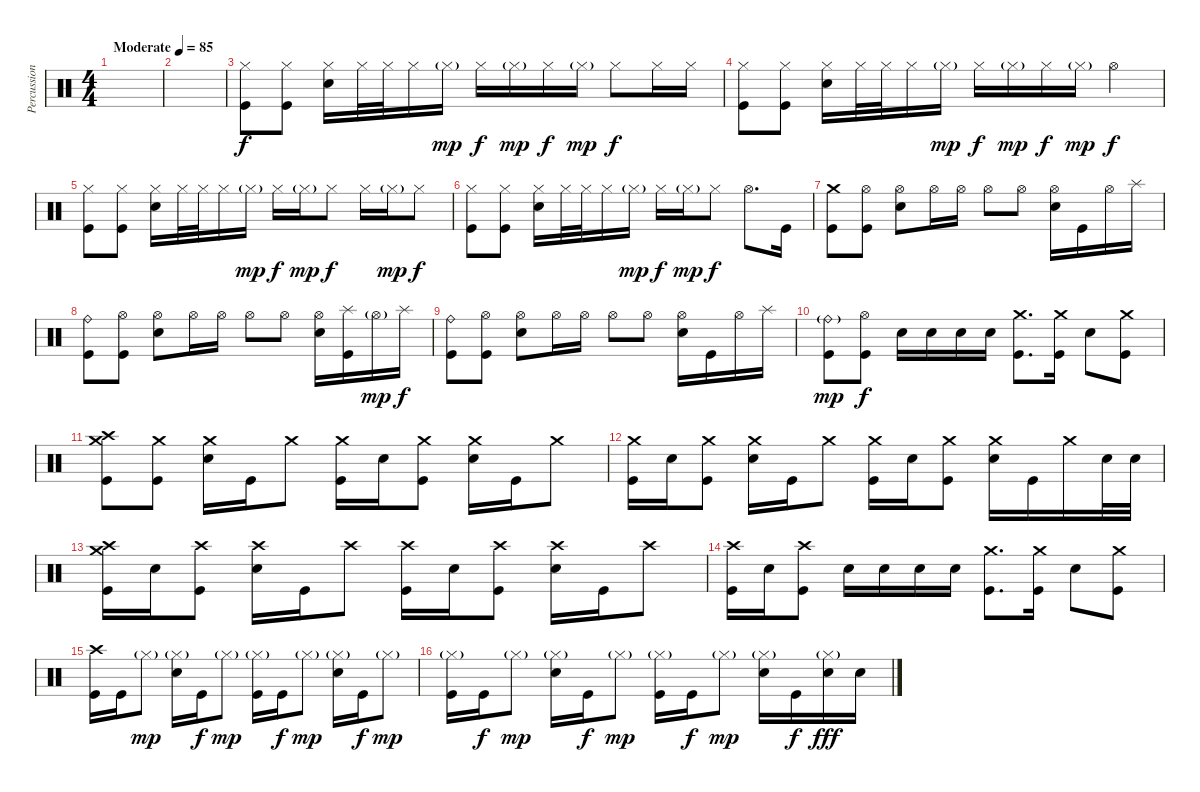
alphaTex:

\track ("Percussion" "Percussion") {instrument percussion}
\staff {score}
\articulation defaults
\ts (4 4)
\tempo (85 "Moderate")
\clef neutral
\ks c
|
|
("Hi-Hat (closed)" "Kick (hit)").8 ("Hi-Hat (closed)" "Kick (hit)").8 ("Hi-Hat (closed)" "Snare (hit) 2").16 "Hi-Hat (closed)".32 "Hi-Hat (closed)".32 "Hi-Hat (closed)".16 "Hi-Hat (closed)"{g}.16{dy mp} "Hi-Hat (closed)".16{dy f} "Hi-Hat (closed)"{g}.16{dy mp} "Hi-Hat (closed)".16{dy f} "Hi-Hat (closed)"{g}.16{dy mp} "Hi-Hat (closed)".8{dy f} "Hi-Hat (closed)".16 "Hi-Hat (closed)".16 |
("Hi-Hat (closed)" "Kick (hit)").8 ("Hi-Hat (closed)" "Kick (hit)").8 ("Hi-Hat (closed)" "Snare (hit) 2").16 "Hi-Hat (closed)".32 "Hi-Hat (closed)".32 "Hi-Hat (closed)".16 "Hi-Hat (closed)"{g}.16{dy mp} "Hi-Hat (closed)".16{dy f} "Hi-Hat (closed)"{g}.16{dy mp} "Hi-Hat (closed)".16{dy f} "Hi-Hat (closed)"{g}.16{dy mp} "Hi-Hat (open)".4{dy f} |
("Hi-Hat (closed)" "Kick (hit)").8 ("Hi-Hat (closed)" "Kick (hit)").8 ("Hi-Hat (closed)" "Snare (hit) 2").16 "Hi-Hat (closed)".32 "Hi-Hat (closed)".32 "Hi-Hat (closed)".16 "Hi-Hat (closed)"{g}.16{dy mp} "Hi-Hat (closed)".16{dy f} "Hi-Hat (closed)"{g}.16{dy mp} "Hi-Hat (closed)".8{dy f} "Hi-Hat (closed)".16 "Hi-Hat (closed)"{g}.16{dy mp} "Hi-Hat (closed)".8{dy f} |
("Hi-Hat (closed)" "Kick (hit)").8 ("Hi-Hat (closed)" "Kick (hit)").8 ("Hi-Hat (closed)" "Snare (hit) 2").16 "Hi-Hat (closed)".32 "Hi-Hat (closed)".32 "Hi-Hat (closed)".16 "Hi-Hat (closed)"{g}.16{dy mp} "Hi-Hat (closed)".16{dy f} "Hi-Hat (closed)"{g}.16{dy mp} "Hi-Hat (closed)".8{dy f} "Hi-Hat (open)".8{d} "Kick (hit)".16 |
("Crash medium (hit)" "Kick (hit)").8 ("Hi-Hat (open)" "Kick (hit)").8 ("Hi-Hat (open)" "Snare (hit) 2").8 "Hi-Hat (open)".16 "Hi-Hat (open)".16 "Hi-Hat (open)".8 "Hi-Hat (open)".8 ("Hi-Hat (open)" "Snare (hit) 2").16 "Kick (hit)".16 "Hi-Hat (open)".16 "Splash (hit)".16 |
("Ride (bell)" "Kick (hit)").8 ("Hi-Hat (open)" "Kick (hit)").8 ("Hi-Hat (open)" "Snare (hit) 2").8 "Hi-Hat (open)".16 "Hi-Hat (open)".16 "Hi-Hat (open)".8 "Hi-Hat (open)".8 ("Hi-Hat (open)" "Snare (hit) 2").16 ("Splash (hit)" "Kick (hit)").16 "Hi-Hat (open)"{g}.16{dy mp} "Splash (hit)".16{dy f} |
("Ride (bell)" "Kick (hit)").8 ("Hi-Hat (open)" "Kick (hit)").8 ("Hi-Hat (open)" "Snare (hit) 2").8 "Hi-Hat (open)".16 "Hi-Hat (open)".16 "Hi-Hat (open)".8 "Hi-Hat (open)".8 ("Hi-Hat (open)" "Snare (hit) 2").16 "Kick (hit)".16 "Hi-Hat (open)".16 "Splash (hit)".16 |
("Ride (bell)"{g} "Kick (hit)").8{dy mp} ("Hi-Hat (open)" "Kick (hit)").8{dy f} "Snare (hit) 2".16 "Snare (hit) 2".16 "Snare (hit) 2".16 "Snare (hit) 2".16 ("Crash medium (hit)" "Kick (hit)").8{d} ("Crash medium (hit)" "Kick (hit)").16 "Snare (hit) 2".8 ("Crash medium (hit)" "Kick (hit)").8 |
("Crash medium (hit)" "Crash high (hit)" "Kick (hit)").8 ("Crash medium (hit)" "Kick (hit)").8 ("Crash medium (hit)" "Snare (hit) 2").16 "Kick (hit)".16 "Crash medium (hit)".8 ("Crash medium (hit)" "Kick (hit)").16 "Snare (hit) 2".16 ("Crash medium (hit)" "Kick (hit)").8 ("Crash medium (hit)" "Snare (hit) 2").16 "Kick (hit)".16 "Crash medium (hit)".8 |
("Crash medium (hit)" "Kick (hit)").16 "Snare (hit) 2".16 ("Crash medium (hit)" "Kick (hit)").8 ("Crash medium (hit)" "Snare (hit) 2").16 "Kick (hit)".16 "Crash medium (hit)".8 ("Crash medium (hit)" "Kick (hit)").16 "Snare (hit) 2".16 ("Crash medium (hit)" "Kick (hit)").8 ("Crash medium (hit)" "Snare (hit) 2").16 "Kick (hit)".16 "Crash medium (hit)".16 "Snare (hit) 2".32 "Snare (hit) 2".32 |
("Crash high (hit)" "Crash medium (hit)" "Kick (hit)").16 "Snare (hit) 2".16 ("Crash high (hit)" "Kick (hit)").8 ("Crash high (hit)" "Snare (hit) 2").16 "Kick (hit)".16 "Crash high (hit)".8 ("Crash high (hit)" "Kick (hit)").16 "Snare (hit) 2".16 ("Crash high (hit)" "Kick (hit)").8 ("Crash high (hit)" "Snare (hit) 2").16 "Kick (hit)".16 "Crash high (hit)".8 |
("Crash high (hit)" "Kick (hit)").16 "Snare (hit) 2".16 ("Crash high (hit)" "Kick (hit)").8 "Snare (hit) 2".16 "Snare (hit) 2".16 "Snare (hit) 2".16 "Snare (hit) 2".16 ("Crash medium (hit)" "Kick (hit)").8{d} ("Crash medium (hit)" "Kick (hit)").16 "Snare (hit) 2".8 ("Crash medium (hit)" "Kick (hit)").8 |
("Crash high (hit)" "Kick (hit)").16 "Kick (hit)".16 "Hi-Hat (closed)"{g}.8{dy mp} ("Hi-Hat (closed)"{g} "Snare (hit) 2").16 "Kick (hit)".16{dy f} "Hi-Hat (closed)"{g}.8{dy mp} ("Hi-Hat (closed)"{g} "Kick (hit)").16 "Kick (hit)".16{dy f} "Hi-Hat (closed)"{g}.8{dy mp} ("Hi-Hat (closed)"{g} "Snare (hit) 2").16 "Kick (hit)".16{dy f} "Hi-Hat (closed)"{g}.8{dy mp} |
("Hi-Hat (closed)"{g} "Kick (hit)").16 "Kick (hit)".16{dy f} "Hi-Hat (closed)"{g}.8{dy mp} ("Hi-Hat (closed)"{g} "Snare (hit) 2").16 "Kick (hit)".16{dy f} "Hi-Hat (closed)"{g}.8{dy mp} ("Hi-Hat (closed)"{g} "Kick (hit)").16 "Kick (hit)".16{dy f} "Hi-Hat (closed)"{g}.8{dy mp} ("Hi-Hat (closed)"{g} "Snare (hit) 2").16 "Kick (hit)".16{dy f} ("Hi-Hat (closed)"{g} "Snare (hit) 2").16{dy fff} "Snare (hit) 2".16
